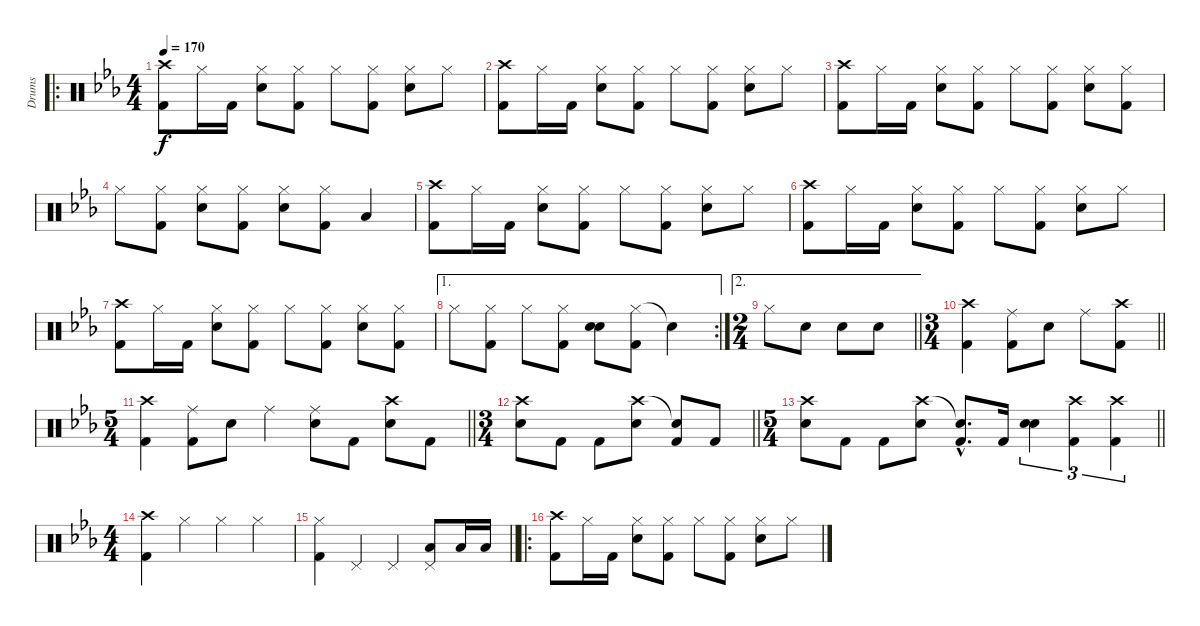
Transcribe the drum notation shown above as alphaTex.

\track ("Drums" "Drums") {instrument percussion}
\staff {score}
\articulation defaults
\ro
\ts (4 4)
\tempo 170
\clef neutral
\ks eb
("Crash high (hit)" "Kick (hit) 2").8{dy f} "Hi-Hat (closed)".16 "Kick (hit) 2".16 ("Hi-Hat (closed)" "Snare (hit) 2").8 ("Hi-Hat (closed)" "Kick (hit) 2").8 "Hi-Hat (closed)".8 ("Hi-Hat (closed)" "Kick (hit) 2").8 ("Hi-Hat (closed)" "Snare (hit) 2").8 "Hi-Hat (closed)".8 |
("Crash high (hit)" "Kick (hit) 2").8 "Hi-Hat (closed)".16 "Kick (hit) 2".16 ("Hi-Hat (closed)" "Snare (hit) 2").8 ("Hi-Hat (closed)" "Kick (hit) 2").8 "Hi-Hat (closed)".8 ("Hi-Hat (closed)" "Kick (hit) 2").8 ("Hi-Hat (closed)" "Snare (hit) 2").8 "Hi-Hat (closed)".8 |
("Crash high (hit)" "Kick (hit) 2").8 "Hi-Hat (closed)".16 "Kick (hit) 2".16 ("Hi-Hat (closed)" "Snare (hit) 2").8 ("Hi-Hat (closed)" "Kick (hit) 2").8 "Hi-Hat (closed)".8 ("Hi-Hat (closed)" "Kick (hit) 2").8 ("Hi-Hat (closed)" "Snare (hit) 2").8 ("Hi-Hat (closed)" "Kick (hit) 2").8 |
"Hi-Hat (closed)".8 ("Hi-Hat (closed)" "Kick (hit) 2").8 ("Hi-Hat (closed)" "Snare (hit) 2").8 ("Hi-Hat (closed)" "Kick (hit) 2").8 ("Hi-Hat (closed)" "Snare (hit) 2").8 ("Hi-Hat (closed)" "Kick (hit) 2").8 "Low Floor Tom (hit)".4 |
("Crash high (hit)" "Kick (hit) 2").8 "Hi-Hat (closed)".16 "Kick (hit) 2".16 ("Hi-Hat (closed)" "Snare (hit) 2").8 ("Hi-Hat (closed)" "Kick (hit) 2").8 "Hi-Hat (closed)".8 ("Hi-Hat (closed)" "Kick (hit) 2").8 ("Hi-Hat (closed)" "Snare (hit) 2").8 "Hi-Hat (closed)".8 |
("Crash high (hit)" "Kick (hit) 2").8 "Hi-Hat (closed)".16 "Kick (hit) 2".16 ("Hi-Hat (closed)" "Snare (hit) 2").8 ("Hi-Hat (closed)" "Kick (hit) 2").8 "Hi-Hat (closed)".8 ("Hi-Hat (closed)" "Kick (hit) 2").8 ("Hi-Hat (closed)" "Snare (hit) 2").8 "Hi-Hat (closed)".8 |
("Crash high (hit)" "Kick (hit) 2").8 "Hi-Hat (closed)".16 "Kick (hit) 2".16 ("Hi-Hat (closed)" "Snare (hit) 2").8 ("Hi-Hat (closed)" "Kick (hit) 2").8 "Hi-Hat (closed)".8 ("Hi-Hat (closed)" "Kick (hit) 2").8 ("Hi-Hat (closed)" "Snare (hit) 2").8 ("Hi-Hat (closed)" "Kick (hit) 2").8 |
\ae 1
\rc 2 "Hi-Hat (closed)".8
("Hi-Hat (closed)" "Kick (hit) 2").8 "Hi-Hat (closed)".8 ("Hi-Hat (closed)" "Kick (hit) 2").8 ("Snare (hit) 2" "Snare (hit) 2").8 ("Hi-Hat (closed)" "Kick (hit) 2").8 "Snare (hit)"{t}.4 |
\ae 2
\ts (2 4)
\barLineRight lightlight "Hi-Hat (closed)".8 "Snare (hit) 2".8 "Snare (hit) 2".8 "Snare (hit) 2".8
|
\ts (3 4)
\barLineRight lightlight
("Crash high (hit)" "Kick (hit) 2").4 ("Ride (middle)" "Kick (hit) 2").8 "Snare (hit) 2".8 "Ride (middle)".8 ("Crash high (hit)" "Kick (hit) 2").8 |
\ts (5 4)
\barLineRight lightlight
("Crash high (hit)" "Kick (hit) 2").4 ("Ride (middle)" "Kick (hit) 2").8 "Snare (hit) 2".8 "Ride (middle)".4 ("Ride (middle)" "Snare (hit) 2").8 "Kick (hit) 2".8 ("Crash high (hit)" "Snare (hit) 2").8 "Kick (hit) 2".8 |
\ts (3 4)
\barLineRight lightlight
("Crash high (hit)" "Snare (hit) 2").8 "Kick (hit) 2".8 "Kick (hit) 2".8 ("Crash high (hit)" "Snare (hit) 2").8 ("Snare (hit)"{t} "Kick (hit) 2").8 "Kick (hit) 2".8 |
\ts (5 4)
\barLineRight lightlight
("Crash high (hit)" "Snare (hit) 2").8 "Kick (hit) 2".8 "Kick (hit) 2".8 ("Crash high (hit)" "Snare (hit) 2").8 ("Snare (hit)"{hac t} "Kick (hit) 2"{hac}).8{d} "Kick (hit) 2".16 ("Snare (hit) 2" "Snare (hit) 2").4{tu (3 2)} ("Crash high (hit)" "Kick (hit) 2").4{tu (3 2)} ("Crash high (hit)" "Kick (hit) 2").4{tu (3 2)} |
\ts (4 4)
("Crash high (hit)" "Kick (hit) 2").4 "Hi-Hat (closed)".4 "Hi-Hat (closed)".4 "Hi-Hat (closed)".4 |
\barLineRight lightlight
("Hi-Hat (closed)" "Kick (hit) 2").4 "Pedal Hi-Hat (hit)".4 "Pedal Hi-Hat (hit)".4 ("Pedal Hi-Hat (hit)" "Low Floor Tom (hit)").8 "Low Floor Tom (hit)".16 "Low Floor Tom (hit)".16 |
\ro
("Crash high (hit)" "Kick (hit) 2").8 "Hi-Hat (closed)".16 "Kick (hit) 2".16 ("Hi-Hat (closed)" "Snare (hit) 2").8 ("Hi-Hat (closed)" "Kick (hit) 2").8 "Hi-Hat (closed)".8 ("Hi-Hat (closed)" "Kick (hit) 2").8 ("Hi-Hat (closed)" "Snare (hit) 2").8 "Hi-Hat (closed)".8
